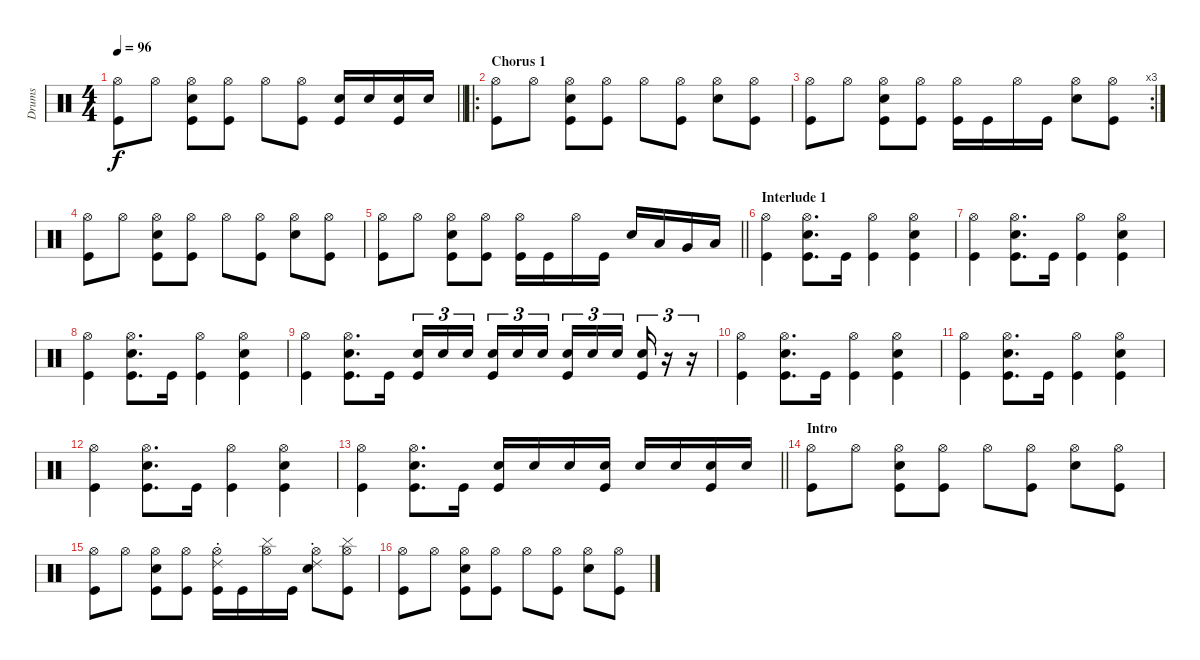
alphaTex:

\track ("Drums" "Drums") {instrument percussion}
\staff {score}
\articulation defaults
\ts (4 4)
\tempo 96
\clef neutral
\barLineRight lightlight
\ks c
("Hi-Hat (open)" "Kick (hit)").8{dy f} "Hi-Hat (open)".8 ("Snare (hit) 2" "Hi-Hat (open)" "Kick (hit)").8 ("Hi-Hat (open)" "Kick (hit)").8 "Hi-Hat (open)".8 ("Hi-Hat (open)" "Kick (hit)").8 ("Snare (hit) 2" "Kick (hit)").16 "Snare (hit) 2".16 ("Snare (hit) 2" "Kick (hit)").16 "Snare (hit) 2".16 |
\ro
\section ("" "Chorus 1")
("Hi-Hat (open)" "Kick (hit)").8 "Hi-Hat (open)".8 ("Snare (hit) 2" "Hi-Hat (open)" "Kick (hit)").8 ("Hi-Hat (open)" "Kick (hit)").8 "Hi-Hat (open)".8 ("Hi-Hat (open)" "Kick (hit)").8 ("Snare (hit) 2" "Hi-Hat (open)").8 ("Hi-Hat (open)" "Kick (hit)").8 |
\rc 3
("Hi-Hat (open)" "Kick (hit)").8 "Hi-Hat (open)".8 ("Snare (hit) 2" "Hi-Hat (open)" "Kick (hit)").8 ("Hi-Hat (open)" "Kick (hit)").8 ("Hi-Hat (open)" "Kick (hit)").16 "Kick (hit)".16 "Hi-Hat (open)".16 "Kick (hit)".16 ("Snare (hit) 2" "Hi-Hat (open)").8 ("Hi-Hat (open)" "Kick (hit)").8 |
("Hi-Hat (open)" "Kick (hit)").8 "Hi-Hat (open)".8 ("Snare (hit) 2" "Hi-Hat (open)" "Kick (hit)").8 ("Hi-Hat (open)" "Kick (hit)").8 "Hi-Hat (open)".8 ("Hi-Hat (open)" "Kick (hit)").8 ("Snare (hit) 2" "Hi-Hat (open)").8 ("Hi-Hat (open)" "Kick (hit)").8 |
\barLineRight lightlight
("Hi-Hat (open)" "Kick (hit)").8 "Hi-Hat (open)".8 ("Snare (hit) 2" "Hi-Hat (open)" "Kick (hit)").8 ("Hi-Hat (open)" "Kick (hit)").8 ("Hi-Hat (open)" "Kick (hit)").16 "Kick (hit)".16 "Hi-Hat (open)".16 "Kick (hit)".16 "Snare (hit) 2".16 "Low Tom (hit)".16 "Very Low Tom (hit)".16 "Low Floor Tom (hit)".16 |
\section ("" "Interlude 1")
("Hi-Hat (open)" "Kick (hit)").4 ("Snare (hit) 2" "Hi-Hat (open)" "Kick (hit)").8{d} "Kick (hit)".16 ("Hi-Hat (open)" "Kick (hit)").4 ("Snare (hit) 2" "Hi-Hat (open)" "Kick (hit)").4 |
("Hi-Hat (open)" "Kick (hit)").4 ("Snare (hit) 2" "Hi-Hat (open)" "Kick (hit)").8{d} "Kick (hit)".16 ("Hi-Hat (open)" "Kick (hit)").4 ("Snare (hit) 2" "Hi-Hat (open)" "Kick (hit)").4 |
("Hi-Hat (open)" "Kick (hit)").4 ("Snare (hit) 2" "Hi-Hat (open)" "Kick (hit)").8{d} "Kick (hit)".16 ("Hi-Hat (open)" "Kick (hit)").4 ("Snare (hit) 2" "Hi-Hat (open)" "Kick (hit)").4 |
("Hi-Hat (open)" "Kick (hit)").4 ("Snare (hit) 2" "Hi-Hat (open)" "Kick (hit)").8{d} "Kick (hit)".16 ("Snare (hit) 2" "Kick (hit)").16{tu (3 2)} "Snare (hit) 2".16{tu (3 2)} "Snare (hit) 2".16{tu (3 2) beam splitsecondary} ("Snare (hit) 2" "Kick (hit)").16{tu (3 2)} "Snare (hit) 2".16{tu (3 2)} "Snare (hit) 2".16{tu (3 2)} ("Snare (hit) 2" "Kick (hit)").16{tu (3 2)} "Snare (hit) 2".16{tu (3 2)} "Snare (hit) 2".16{tu (3 2) beam splitsecondary} ("Snare (hit) 2" "Kick (hit)").16{tu (3 2)} r.16{tu (3 2)} r.16{tu (3 2)} |
("Hi-Hat (open)" "Kick (hit)").4 ("Snare (hit) 2" "Hi-Hat (open)" "Kick (hit)").8{d} "Kick (hit)".16 ("Hi-Hat (open)" "Kick (hit)").4 ("Snare (hit) 2" "Hi-Hat (open)" "Kick (hit)").4 |
("Hi-Hat (open)" "Kick (hit)").4 ("Snare (hit) 2" "Hi-Hat (open)" "Kick (hit)").8{d} "Kick (hit)".16 ("Hi-Hat (open)" "Kick (hit)").4 ("Snare (hit) 2" "Hi-Hat (open)" "Kick (hit)").4 |
("Hi-Hat (open)" "Kick (hit)").4 ("Snare (hit) 2" "Hi-Hat (open)" "Kick (hit)").8{d} "Kick (hit)".16 ("Hi-Hat (open)" "Kick (hit)").4 ("Snare (hit) 2" "Hi-Hat (open)" "Kick (hit)").4 |
\barLineRight lightlight
("Hi-Hat (open)" "Kick (hit)").4 ("Snare (hit) 2" "Hi-Hat (open)" "Kick (hit)").8{d} "Kick (hit)".16 ("Snare (hit) 2" "Kick (hit)").16 "Snare (hit) 2".16 "Snare (hit) 2".16 ("Snare (hit) 2" "Kick (hit)").16 "Snare (hit) 2".16 "Snare (hit) 2".16 ("Snare (hit) 2" "Kick (hit)").16 "Snare (hit) 2".16 |
\section ("" "Intro")
("Hi-Hat (open)" "Kick (hit)").8 "Hi-Hat (open)".8 ("Snare (hit) 2" "Hi-Hat (open)" "Kick (hit)").8 ("Hi-Hat (open)" "Kick (hit)").8 "Hi-Hat (open)".8 ("Hi-Hat (open)" "Kick (hit)").8 ("Snare (hit) 2" "Hi-Hat (open)").8 ("Hi-Hat (open)" "Kick (hit)").8 |
("Hi-Hat (open)" "Kick (hit)").8 "Hi-Hat (open)".8 ("Snare (hit) 2" "Hi-Hat (open)" "Kick (hit)").8 ("Hi-Hat (open)" "Kick (hit)").8 ("Ride (choke) 2" "Hi-Hat (open)" "Kick (hit)").16 "Kick (hit)".16 ("Cymbal (hit)" "Hi-Hat (open)").16 "Kick (hit)".16 ("Ride (choke) 2" "Snare (hit) 2" "Hi-Hat (open)").8 ("Cymbal (hit)" "Hi-Hat (open)" "Kick (hit)").8 |
("Hi-Hat (open)" "Kick (hit)").8 "Hi-Hat (open)".8 ("Snare (hit) 2" "Hi-Hat (open)" "Kick (hit)").8 ("Hi-Hat (open)" "Kick (hit)").8 "Hi-Hat (open)".8 ("Hi-Hat (open)" "Kick (hit)").8 ("Snare (hit) 2" "Hi-Hat (open)").8 ("Hi-Hat (open)" "Kick (hit)").8
